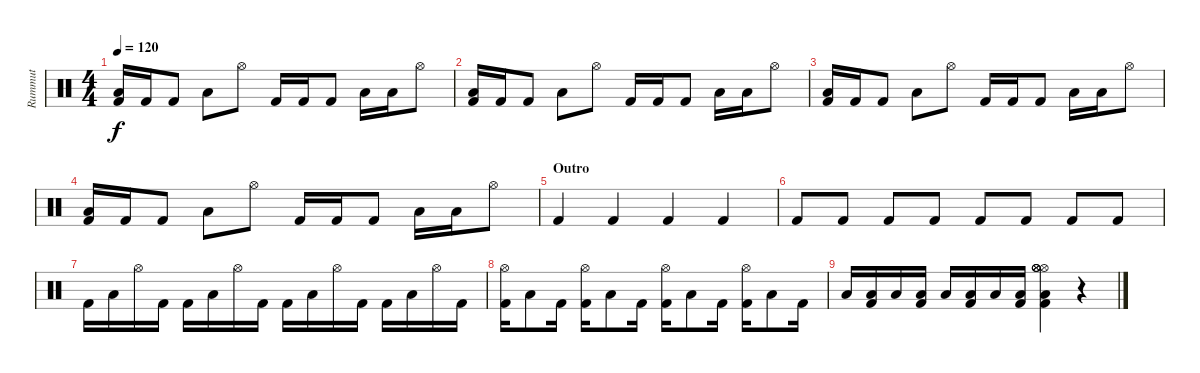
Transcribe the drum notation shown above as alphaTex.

\track ("Rummut" "Rummut") {instrument percussion}
\staff {score}
\articulation defaults
\ts (4 4)
\tempo 120
\clef neutral
\ks c
("Kick (hit) 2" "Low Tom (hit)").16{dy f} "Kick (hit) 2".16 "Kick (hit) 2".8 "Low Tom (hit)".8 "Hi-Hat (open)".8 "Kick (hit) 2".16 "Kick (hit) 2".16 "Kick (hit) 2".8 "Low Tom (hit)".16 "Low Tom (hit)".16 "Hi-Hat (open)".8 |
("Kick (hit) 2" "Low Tom (hit)").16 "Kick (hit) 2".16 "Kick (hit) 2".8 "Low Tom (hit)".8 "Hi-Hat (open)".8 "Kick (hit) 2".16 "Kick (hit) 2".16 "Kick (hit) 2".8 "Low Tom (hit)".16 "Low Tom (hit)".16 "Hi-Hat (open)".8 |
("Kick (hit) 2" "Low Tom (hit)").16 "Kick (hit) 2".16 "Kick (hit) 2".8 "Low Tom (hit)".8 "Hi-Hat (open)".8 "Kick (hit) 2".16 "Kick (hit) 2".16 "Kick (hit) 2".8 "Low Tom (hit)".16 "Low Tom (hit)".16 "Hi-Hat (open)".8 |
("Kick (hit) 2" "Low Tom (hit)").16 "Kick (hit) 2".16 "Kick (hit) 2".8 "Low Tom (hit)".8 "Hi-Hat (open)".8 "Kick (hit) 2".16 "Kick (hit) 2".16 "Kick (hit) 2".8 "Low Tom (hit)".16 "Low Tom (hit)".16 "Hi-Hat (open)".8 |
\section ("" "Outro")
"Kick (hit) 2".4 "Kick (hit) 2".4 "Kick (hit) 2".4 "Kick (hit) 2".4 |
"Kick (hit) 2".8 "Kick (hit) 2".8 "Kick (hit) 2".8 "Kick (hit) 2".8 "Kick (hit) 2".8 "Kick (hit) 2".8 "Kick (hit) 2".8 "Kick (hit) 2".8 |
"Kick (hit) 2".16 "Low Tom (hit)".16 "Hi-Hat (open)".16 "Kick (hit) 2".16 "Kick (hit) 2".16 "Low Tom (hit)".16 "Hi-Hat (open)".16 "Kick (hit) 2".16 "Kick (hit) 2".16 "Low Tom (hit)".16 "Hi-Hat (open)".16 "Kick (hit) 2".16 "Kick (hit) 2".16 "Low Tom (hit)".16 "Hi-Hat (open)".16 "Kick (hit) 2".16 |
("Hi-Hat (open)" "Kick (hit) 2").16 "Low Tom (hit)".8 "Kick (hit) 2".16 ("Hi-Hat (open)" "Kick (hit) 2").16 "Low Tom (hit)".8 "Kick (hit) 2".16 ("Hi-Hat (open)" "Kick (hit) 2").16 "Low Tom (hit)".8 "Kick (hit) 2".16 ("Hi-Hat (open)" "Kick (hit) 2").16 "Low Tom (hit)".8 "Kick (hit) 2".16 |
"Low Tom (hit)".16 ("Low Tom (hit)" "Kick (hit) 2").16 "Low Tom (hit)".16 ("Low Tom (hit)" "Kick (hit) 2").16 "Low Tom (hit)".16 ("Low Tom (hit)" "Kick (hit) 2").16 "Low Tom (hit)".16 ("Low Tom (hit)" "Kick (hit) 2").16 ("Hi-Hat (open)" "Hi-Hat (open)" "Hi-Hat (open)" "Hi-Hat (open)" "Kick (hit) 2" "Low Tom (hit)").4 r.4
